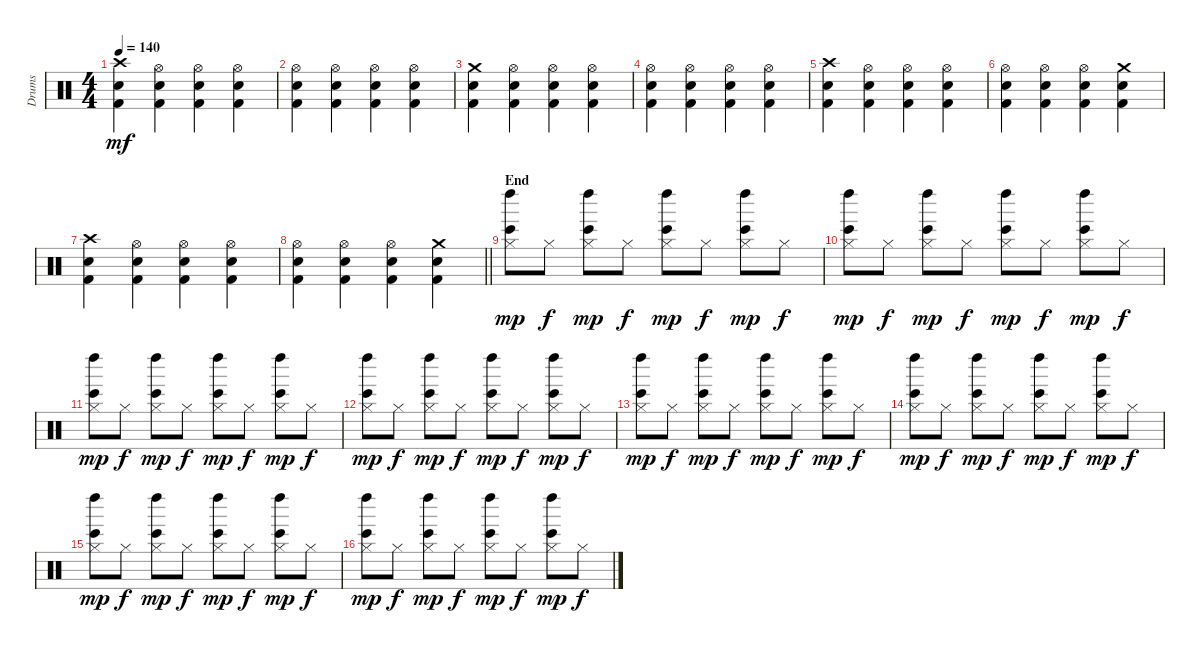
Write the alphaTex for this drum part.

\track ("Drums" "Drums") {instrument percussion}
\staff {score}
\articulation defaults
\ts (4 4)
\tempo 140
\clef neutral
\ks c
("Crash high (hit)" "Electric Snare (hit)" "Kick (hit) 2").4{dy mf} ("Hi-Hat (open)" "Electric Snare (hit)" "Kick (hit) 2").4 ("Hi-Hat (open)" "Electric Snare (hit)" "Kick (hit) 2").4 ("Hi-Hat (open)" "Electric Snare (hit)" "Kick (hit) 2").4 |
("Hi-Hat (open)" "Electric Snare (hit)" "Kick (hit) 2").4 ("Hi-Hat (open)" "Electric Snare (hit)" "Kick (hit) 2").4 ("Hi-Hat (open)" "Electric Snare (hit)" "Kick (hit) 2").4 ("Hi-Hat (open)" "Electric Snare (hit)" "Kick (hit) 2").4 |
("Crash medium (hit)" "Electric Snare (hit)" "Kick (hit) 2").4 ("Hi-Hat (open)" "Electric Snare (hit)" "Kick (hit) 2").4 ("Hi-Hat (open)" "Electric Snare (hit)" "Kick (hit) 2").4 ("Hi-Hat (open)" "Electric Snare (hit)" "Kick (hit) 2").4 |
("Hi-Hat (open)" "Electric Snare (hit)" "Kick (hit) 2").4 ("Hi-Hat (open)" "Electric Snare (hit)" "Kick (hit) 2").4 ("Hi-Hat (open)" "Electric Snare (hit)" "Kick (hit) 2").4 ("Hi-Hat (open)" "Electric Snare (hit)" "Kick (hit) 2").4 |
("Crash high (hit)" "Electric Snare (hit)" "Kick (hit) 2").4 ("Hi-Hat (open)" "Electric Snare (hit)" "Kick (hit) 2").4 ("Hi-Hat (open)" "Electric Snare (hit)" "Kick (hit) 2").4 ("Hi-Hat (open)" "Electric Snare (hit)" "Kick (hit) 2").4 |
("Hi-Hat (open)" "Electric Snare (hit)" "Kick (hit) 2").4 ("Hi-Hat (open)" "Electric Snare (hit)" "Kick (hit) 2").4 ("Hi-Hat (open)" "Electric Snare (hit)" "Kick (hit) 2").4 ("Crash medium (hit)" "Electric Snare (hit)" "Kick (hit) 2").4 |
("Crash high (hit)" "Electric Snare (hit)" "Kick (hit) 2").4 ("Hi-Hat (open)" "Electric Snare (hit)" "Kick (hit) 2").4 ("Hi-Hat (open)" "Electric Snare (hit)" "Kick (hit) 2").4 ("Hi-Hat (open)" "Electric Snare (hit)" "Kick (hit) 2").4 |
\barLineRight lightlight
("Hi-Hat (open)" "Electric Snare (hit)" "Kick (hit) 2").4 ("Hi-Hat (open)" "Electric Snare (hit)" "Kick (hit) 2").4 ("Hi-Hat (open)" "Electric Snare (hit)" "Kick (hit) 2").4 ("Crash medium (hit)" "Electric Snare (hit)" "Kick (hit) 2").4 |
\section ("" "End")
("Hi-Hat (closed)" "Left Maraca (hit)" "Bongo High (hit)").8{dy mp} "Hi-Hat (closed)".8{dy f} ("Hi-Hat (closed)" "Left Maraca (hit)" "Bongo High (hit)").8{dy mp} "Hi-Hat (closed)".8{dy f} ("Hi-Hat (closed)" "Left Maraca (hit)" "Bongo High (hit)").8{dy mp} "Hi-Hat (closed)".8{dy f} ("Hi-Hat (closed)" "Left Maraca (hit)" "Bongo High (hit)").8{dy mp} "Hi-Hat (closed)".8{dy f} |
("Hi-Hat (closed)" "Left Maraca (hit)" "Bongo High (hit)").8{dy mp} "Hi-Hat (closed)".8{dy f} ("Hi-Hat (closed)" "Left Maraca (hit)" "Bongo High (hit)").8{dy mp} "Hi-Hat (closed)".8{dy f} ("Hi-Hat (closed)" "Left Maraca (hit)" "Bongo High (hit)").8{dy mp} "Hi-Hat (closed)".8{dy f} ("Hi-Hat (closed)" "Left Maraca (hit)" "Bongo High (hit)").8{dy mp} "Hi-Hat (closed)".8{dy f} |
("Hi-Hat (closed)" "Left Maraca (hit)" "Bongo High (hit)").8{dy mp} "Hi-Hat (closed)".8{dy f} ("Hi-Hat (closed)" "Left Maraca (hit)" "Bongo High (hit)").8{dy mp} "Hi-Hat (closed)".8{dy f} ("Hi-Hat (closed)" "Left Maraca (hit)" "Bongo High (hit)").8{dy mp} "Hi-Hat (closed)".8{dy f} ("Hi-Hat (closed)" "Left Maraca (hit)" "Bongo High (hit)").8{dy mp} "Hi-Hat (closed)".8{dy f} |
("Hi-Hat (closed)" "Left Maraca (hit)" "Bongo High (hit)").8{dy mp} "Hi-Hat (closed)".8{dy f} ("Hi-Hat (closed)" "Left Maraca (hit)" "Bongo High (hit)").8{dy mp} "Hi-Hat (closed)".8{dy f} ("Hi-Hat (closed)" "Left Maraca (hit)" "Bongo High (hit)").8{dy mp} "Hi-Hat (closed)".8{dy f} ("Hi-Hat (closed)" "Left Maraca (hit)" "Bongo High (hit)").8{dy mp} "Hi-Hat (closed)".8{dy f} |
("Hi-Hat (closed)" "Left Maraca (hit)" "Bongo High (hit)").8{dy mp} "Hi-Hat (closed)".8{dy f} ("Hi-Hat (closed)" "Left Maraca (hit)" "Bongo High (hit)").8{dy mp} "Hi-Hat (closed)".8{dy f} ("Hi-Hat (closed)" "Left Maraca (hit)" "Bongo High (hit)").8{dy mp} "Hi-Hat (closed)".8{dy f} ("Hi-Hat (closed)" "Left Maraca (hit)" "Bongo High (hit)").8{dy mp} "Hi-Hat (closed)".8{dy f} |
("Hi-Hat (closed)" "Left Maraca (hit)" "Bongo High (hit)").8{dy mp} "Hi-Hat (closed)".8{dy f} ("Hi-Hat (closed)" "Left Maraca (hit)" "Bongo High (hit)").8{dy mp} "Hi-Hat (closed)".8{dy f} ("Hi-Hat (closed)" "Left Maraca (hit)" "Bongo High (hit)").8{dy mp} "Hi-Hat (closed)".8{dy f} ("Hi-Hat (closed)" "Left Maraca (hit)" "Bongo High (hit)").8{dy mp} "Hi-Hat (closed)".8{dy f} |
("Hi-Hat (closed)" "Left Maraca (hit)" "Bongo High (hit)").8{dy mp} "Hi-Hat (closed)".8{dy f} ("Hi-Hat (closed)" "Left Maraca (hit)" "Bongo High (hit)").8{dy mp} "Hi-Hat (closed)".8{dy f} ("Hi-Hat (closed)" "Left Maraca (hit)" "Bongo High (hit)").8{dy mp} "Hi-Hat (closed)".8{dy f} ("Hi-Hat (closed)" "Left Maraca (hit)" "Bongo High (hit)").8{dy mp} "Hi-Hat (closed)".8{dy f} |
("Hi-Hat (closed)" "Left Maraca (hit)" "Bongo High (hit)").8{dy mp} "Hi-Hat (closed)".8{dy f} ("Hi-Hat (closed)" "Left Maraca (hit)" "Bongo High (hit)").8{dy mp} "Hi-Hat (closed)".8{dy f} ("Hi-Hat (closed)" "Left Maraca (hit)" "Bongo High (hit)").8{dy mp} "Hi-Hat (closed)".8{dy f} ("Hi-Hat (closed)" "Left Maraca (hit)" "Bongo High (hit)").8{dy mp} "Hi-Hat (closed)".8{dy f}
